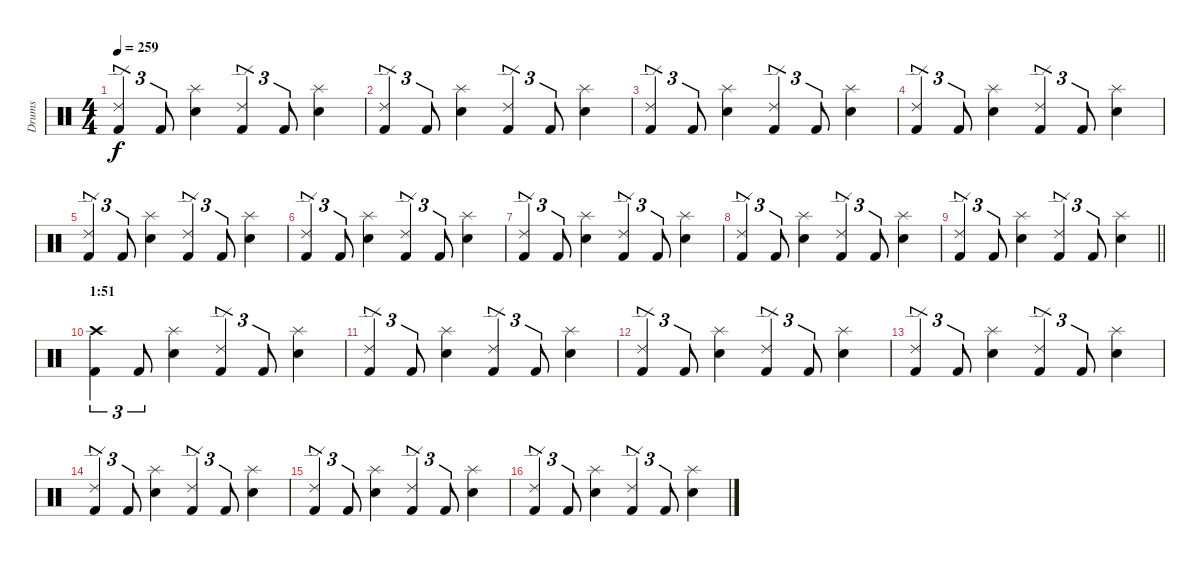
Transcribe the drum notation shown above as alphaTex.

\track ("Drums" "Drums") {instrument percussion}
\staff {score}
\articulation defaults
\ts (4 4)
\tempo 259
\clef neutral
\ks c
("Ride (edge) 2" "Kick (hit) 2").4{tu (3 2) dy f} "Kick (hit) 2".8{tu (3 2)} ("Splash (hit)" "Snare (hit) 2").4 ("Ride (edge) 2" "Kick (hit) 2").4{tu (3 2)} "Kick (hit) 2".8{tu (3 2)} ("Splash (hit)" "Snare (hit) 2").4 |
("Ride (edge) 2" "Kick (hit) 2").4{tu (3 2)} "Kick (hit) 2".8{tu (3 2)} ("Splash (hit)" "Snare (hit) 2").4 ("Ride (edge) 2" "Kick (hit) 2").4{tu (3 2)} "Kick (hit) 2".8{tu (3 2)} ("Splash (hit)" "Snare (hit) 2").4 |
("Ride (edge) 2" "Kick (hit) 2").4{tu (3 2)} "Kick (hit) 2".8{tu (3 2)} ("Splash (hit)" "Snare (hit) 2").4 ("Ride (edge) 2" "Kick (hit) 2").4{tu (3 2)} "Kick (hit) 2".8{tu (3 2)} ("Splash (hit)" "Snare (hit) 2").4 |
("Ride (edge) 2" "Kick (hit) 2").4{tu (3 2)} "Kick (hit) 2".8{tu (3 2)} ("Splash (hit)" "Snare (hit) 2").4 ("Ride (edge) 2" "Kick (hit) 2").4{tu (3 2)} "Kick (hit) 2".8{tu (3 2)} ("Splash (hit)" "Snare (hit) 2").4 |
("Ride (edge) 2" "Kick (hit) 2").4{tu (3 2)} "Kick (hit) 2".8{tu (3 2)} ("Splash (hit)" "Snare (hit) 2").4 ("Ride (edge) 2" "Kick (hit) 2").4{tu (3 2)} "Kick (hit) 2".8{tu (3 2)} ("Splash (hit)" "Snare (hit) 2").4 |
("Ride (edge) 2" "Kick (hit) 2").4{tu (3 2)} "Kick (hit) 2".8{tu (3 2)} ("Splash (hit)" "Snare (hit) 2").4 ("Ride (edge) 2" "Kick (hit) 2").4{tu (3 2)} "Kick (hit) 2".8{tu (3 2)} ("Splash (hit)" "Snare (hit) 2").4 |
("Ride (edge) 2" "Kick (hit) 2").4{tu (3 2)} "Kick (hit) 2".8{tu (3 2)} ("Splash (hit)" "Snare (hit) 2").4 ("Ride (edge) 2" "Kick (hit) 2").4{tu (3 2)} "Kick (hit) 2".8{tu (3 2)} ("Splash (hit)" "Snare (hit) 2").4 |
("Ride (edge) 2" "Kick (hit) 2").4{tu (3 2)} "Kick (hit) 2".8{tu (3 2)} ("Splash (hit)" "Snare (hit) 2").4 ("Ride (edge) 2" "Kick (hit) 2").4{tu (3 2)} "Kick (hit) 2".8{tu (3 2)} ("Splash (hit)" "Snare (hit) 2").4 |
\barLineRight lightlight
("Ride (edge) 2" "Kick (hit) 2").4{tu (3 2)} "Kick (hit) 2".8{tu (3 2)} ("Splash (hit)" "Snare (hit) 2").4 ("Ride (edge) 2" "Kick (hit) 2").4{tu (3 2)} "Kick (hit) 2".8{tu (3 2)} ("Splash (hit)" "Snare (hit) 2").4 |
\section ("" "1:51")
("Crash high (hit)" "Kick (hit) 2").4{tu (3 2)} "Kick (hit) 2".8{tu (3 2)} ("Splash (hit)" "Snare (hit) 2").4 ("Ride (edge) 2" "Kick (hit) 2").4{tu (3 2)} "Kick (hit) 2".8{tu (3 2)} ("Splash (hit)" "Snare (hit) 2").4 |
("Ride (edge) 2" "Kick (hit) 2").4{tu (3 2)} "Kick (hit) 2".8{tu (3 2)} ("Splash (hit)" "Snare (hit) 2").4 ("Ride (edge) 2" "Kick (hit) 2").4{tu (3 2)} "Kick (hit) 2".8{tu (3 2)} ("Splash (hit)" "Snare (hit) 2").4 |
("Ride (edge) 2" "Kick (hit) 2").4{tu (3 2)} "Kick (hit) 2".8{tu (3 2)} ("Splash (hit)" "Snare (hit) 2").4 ("Ride (edge) 2" "Kick (hit) 2").4{tu (3 2)} "Kick (hit) 2".8{tu (3 2)} ("Splash (hit)" "Snare (hit) 2").4 |
("Ride (edge) 2" "Kick (hit) 2").4{tu (3 2)} "Kick (hit) 2".8{tu (3 2)} ("Splash (hit)" "Snare (hit) 2").4 ("Ride (edge) 2" "Kick (hit) 2").4{tu (3 2)} "Kick (hit) 2".8{tu (3 2)} ("Splash (hit)" "Snare (hit) 2").4 |
("Ride (edge) 2" "Kick (hit) 2").4{tu (3 2)} "Kick (hit) 2".8{tu (3 2)} ("Splash (hit)" "Snare (hit) 2").4 ("Ride (edge) 2" "Kick (hit) 2").4{tu (3 2)} "Kick (hit) 2".8{tu (3 2)} ("Splash (hit)" "Snare (hit) 2").4 |
("Ride (edge) 2" "Kick (hit) 2").4{tu (3 2)} "Kick (hit) 2".8{tu (3 2)} ("Splash (hit)" "Snare (hit) 2").4 ("Ride (edge) 2" "Kick (hit) 2").4{tu (3 2)} "Kick (hit) 2".8{tu (3 2)} ("Splash (hit)" "Snare (hit) 2").4 |
("Ride (edge) 2" "Kick (hit) 2").4{tu (3 2)} "Kick (hit) 2".8{tu (3 2)} ("Splash (hit)" "Snare (hit) 2").4 ("Ride (edge) 2" "Kick (hit) 2").4{tu (3 2)} "Kick (hit) 2".8{tu (3 2)} ("Splash (hit)" "Snare (hit) 2").4
